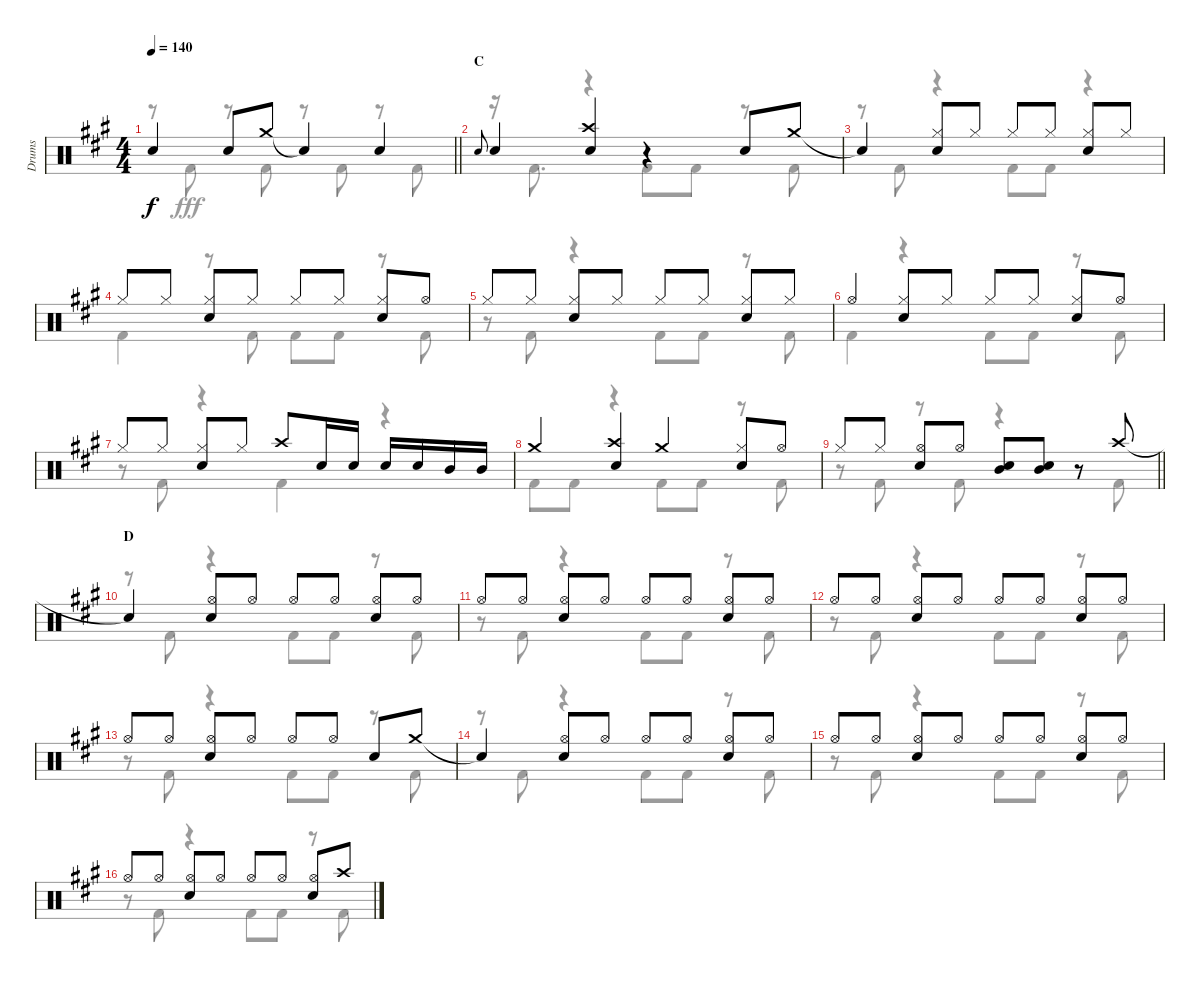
\track ("Drums" "Drums") {instrument percussion}
\staff {score}
\articulation defaults
\voice
\ts (4 4)
\tempo 140
\clef neutral
\barLineRight lightlight
\ks a "Snare (hit)"{t}.4{dy f} "Snare (hit) 2".8 "Crash medium (hit)".8 "Snare (hit)"{t}.4 "Snare (hit) 2".4
|
\section ("" "C")
"Snare (hit) 2".8{gr onbeat} "Snare (hit) 2".4 ("Crash high (hit)" "Snare (hit) 2").4 r.4 "Snare (hit) 2".8 "Crash medium (hit)".8 |
"Snare (hit)"{t}.4 ("Hi-Hat (closed)" "Snare (hit) 2").8 "Hi-Hat (closed)".8 "Hi-Hat (closed)".8 "Hi-Hat (closed)".8 ("Hi-Hat (closed)" "Snare (hit) 2").8 "Hi-Hat (closed)".8 |
"Hi-Hat (closed)".8 "Hi-Hat (closed)".8 ("Hi-Hat (closed)" "Snare (hit) 2").8 "Hi-Hat (closed)".8 "Hi-Hat (closed)".8 "Hi-Hat (closed)".8 ("Hi-Hat (closed)" "Snare (hit) 2").8 "Hi-Hat (open)".8 |
"Hi-Hat (closed)".8 "Hi-Hat (closed)".8 ("Hi-Hat (closed)" "Snare (hit) 2").8 "Hi-Hat (closed)".8 "Hi-Hat (closed)".8 "Hi-Hat (closed)".8 ("Hi-Hat (closed)" "Snare (hit) 2").8 "Hi-Hat (closed)".8 |
"Hi-Hat (open)".4 ("Hi-Hat (closed)" "Snare (hit) 2").8 "Hi-Hat (closed)".8 "Hi-Hat (closed)".8 "Hi-Hat (closed)".8 ("Hi-Hat (closed)" "Snare (hit) 2").8 "Hi-Hat (open)".8 |
"Hi-Hat (closed)".8 "Hi-Hat (closed)".8 ("Hi-Hat (closed)" "Snare (hit) 2").8 "Hi-Hat (closed)".8 "Crash high (hit)".8 "Snare (hit) 2".16 "Snare (hit) 2".16 "Snare (hit) 2".16 "Snare (hit) 2".16 "Mid Tom (hit)".16 "Mid Tom (hit)".16 |
"Crash medium (hit)".4 ("Crash high (hit)" "Snare (hit) 2").4 "Crash medium (hit)".4 ("Hi-Hat (closed)" "Snare (hit) 2").8 "Hi-Hat (open)".8 |
\barLineRight lightlight "Hi-Hat (closed)".8 "Hi-Hat (closed)".8
("Hi-Hat (open)" "Snare (hit) 2").8 "Hi-Hat (open)".8 ("Mid Tom (hit)" "Snare (hit) 2").8 ("Mid Tom (hit)" "Snare (hit) 2").8 r.8 "Crash high (hit)".8 |
\section ("" "D")
"Snare (hit)"{t}.4 ("Hi-Hat (open)" "Snare (hit) 2").8 "Hi-Hat (open)".8 "Hi-Hat (open)".8 "Hi-Hat (open)".8 ("Hi-Hat (open)" "Snare (hit) 2").8 "Hi-Hat (open)".8 |
"Hi-Hat (open)".8 "Hi-Hat (open)".8 ("Hi-Hat (open)" "Snare (hit) 2").8 "Hi-Hat (open)".8 "Hi-Hat (open)".8 "Hi-Hat (open)".8 ("Hi-Hat (open)" "Snare (hit) 2").8 "Hi-Hat (open)".8 |
"Hi-Hat (open)".8 "Hi-Hat (open)".8 ("Hi-Hat (open)" "Snare (hit) 2").8 "Hi-Hat (open)".8 "Hi-Hat (open)".8 "Hi-Hat (open)".8 ("Hi-Hat (open)" "Snare (hit) 2").8 "Hi-Hat (open)".8 |
"Hi-Hat (open)".8 "Hi-Hat (open)".8 ("Hi-Hat (open)" "Snare (hit) 2").8 "Hi-Hat (open)".8 "Hi-Hat (open)".8 "Hi-Hat (open)".8 "Snare (hit) 2".8 "Crash medium (hit)".8 |
"Snare (hit)"{t}.4 ("Hi-Hat (open)" "Snare (hit) 2").8 "Hi-Hat (open)".8 "Hi-Hat (open)".8 "Hi-Hat (open)".8 ("Hi-Hat (open)" "Snare (hit) 2").8 "Hi-Hat (open)".8 |
"Hi-Hat (open)".8 "Hi-Hat (open)".8 ("Hi-Hat (open)" "Snare (hit) 2").8 "Hi-Hat (open)".8 "Hi-Hat (open)".8 "Hi-Hat (open)".8 ("Hi-Hat (open)" "Snare (hit) 2").8 "Hi-Hat (open)".8 |
"Hi-Hat (open)".8 "Hi-Hat (open)".8 ("Hi-Hat (open)" "Snare (hit) 2").8 "Hi-Hat (open)".8 "Hi-Hat (open)".8 "Hi-Hat (open)".8 ("Hi-Hat (open)" "Snare (hit) 2").8 "Crash high (hit)".8
\voice
\clef neutral
\ottava regular
\simile none
\barLineRight lightlight
\ks a
r.8{dy fff} "Kick (hit) 2".8 r.8 "Kick (hit) 2".8 r.8 "Kick (hit) 2".8 r.8 "Kick (hit) 2".8 |
r.16 "Kick (hit) 2".8{d} r.4 "Kick (hit) 2".8 "Kick (hit) 2".8 r.8 "Kick (hit) 2".8 |
r.8 "Kick (hit) 2".8 r.4 "Kick (hit) 2".8 "Kick (hit) 2".8 r.4 |
"Kick (hit) 2".4 r.8 "Kick (hit) 2".8 "Kick (hit) 2".8 "Kick (hit) 2".8 r.8 "Kick (hit) 2".8 |
r.8 "Kick (hit) 2".8 r.4 "Kick (hit) 2".8 "Kick (hit) 2".8 r.8 "Kick (hit) 2".8 |
"Kick (hit) 2".4 r.4 "Kick (hit) 2".8 "Kick (hit) 2".8 r.8 "Kick (hit) 2".8 |
r.8 "Kick (hit) 2".8 r.4 "Kick (hit) 2".4 r.4 |
"Kick (hit) 2".8 "Kick (hit) 2".8 r.4 "Kick (hit) 2".8 "Kick (hit) 2".8 r.8 "Kick (hit) 2".8 |
\barLineRight lightlight
r.8 "Kick (hit) 2".8 r.8 "Kick (hit) 2".8 r.4 r.8 "Kick (hit) 2".8 |
r.8 "Kick (hit) 2".8 r.4 "Kick (hit) 2".8 "Kick (hit) 2".8 r.8 "Kick (hit) 2".8 |
r.8 "Kick (hit) 2".8 r.4 "Kick (hit) 2".8 "Kick (hit) 2".8 r.8 "Kick (hit) 2".8 |
r.8 "Kick (hit) 2".8 r.4 "Kick (hit) 2".8 "Kick (hit) 2".8 r.8 "Kick (hit) 2".8 |
r.8 "Kick (hit) 2".8 r.4 "Kick (hit) 2".8 "Kick (hit) 2".8 r.8 "Kick (hit) 2".8 |
r.8 "Kick (hit) 2".8 r.4 "Kick (hit) 2".8 "Kick (hit) 2".8 r.8 "Kick (hit) 2".8 |
r.8 "Kick (hit) 2".8 r.4 "Kick (hit) 2".8 "Kick (hit) 2".8 r.8 "Kick (hit) 2".8 |
r.8 "Kick (hit) 2".8 r.4 "Kick (hit) 2".8 "Kick (hit) 2".8 r.8 "Kick (hit) 2".8
